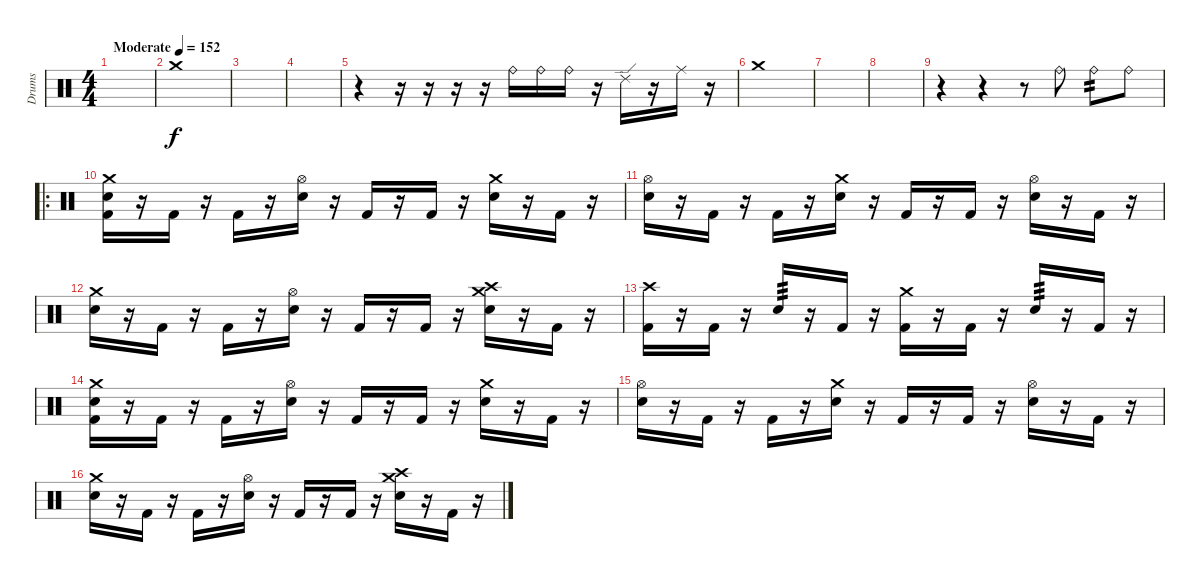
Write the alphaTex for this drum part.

\track ("Drums" "Drums") {instrument percussion}
\staff {score}
\articulation defaults
\ts (4 4)
\tempo (152 "Moderate")
\clef neutral
\ks c
|
"Crash medium (hit)".1 |
|
|
r.4 r.16 r.16 r.16 r.16 "Ride (bell)".16 "Ride (bell)".16 "Ride (bell)".16 r.16 "Ride (edge) 2".16 r.16 "Ride (middle)".16 r.16 |
"Crash medium (hit)".1 |
|
|
r.4 r.4 r.8 "Ride (bell)".8 "Ride (bell)".8{tp 2} "Ride (bell)".8 |
\ro
("Crash medium (hit)" "Snare (hit) 2" "Kick (hit) 2").16 r.16 "Kick (hit) 2".16 r.16 "Kick (hit) 2".16 r.16 ("Hi-Hat (open)" "Snare (hit) 2").16 r.16 "Kick (hit) 2".16 r.16 "Kick (hit) 2".16 r.16 ("Crash medium (hit)" "Snare (hit) 2").16 r.16 "Kick (hit) 2".16 r.16 |
("Hi-Hat (open)" "Snare (hit) 2").16 r.16 "Kick (hit) 2".16 r.16 "Kick (hit) 2".16 r.16 ("Crash medium (hit)" "Snare (hit) 2").16 r.16 "Kick (hit) 2".16 r.16 "Kick (hit) 2".16 r.16 ("Hi-Hat (open)" "Snare (hit) 2").16 r.16 "Kick (hit) 2".16 r.16 |
("Crash medium (hit)" "Snare (hit) 2").16 r.16 "Kick (hit) 2".16 r.16 "Kick (hit) 2".16 r.16 ("Hi-Hat (open)" "Snare (hit) 2").16 r.16 "Kick (hit) 2".16 r.16 "Kick (hit) 2".16 r.16 ("Crash medium (hit)" "Crash high (hit)" "Snare (hit) 2").16 r.16 "Kick (hit) 2".16 r.16 |
("Crash high (hit)" "Kick (hit) 2").16 r.16 "Kick (hit) 2".16 r.16 "Snare (hit) 2".16{tp 3} r.16 "Kick (hit) 2".16 r.16 ("Crash medium (hit)" "Kick (hit) 2").16 r.16 "Kick (hit) 2".16 r.16 "Snare (hit) 2".16{tp 3} r.16 "Kick (hit) 2".16 r.16 |
("Crash medium (hit)" "Snare (hit) 2" "Kick (hit) 2").16 r.16 "Kick (hit) 2".16 r.16 "Kick (hit) 2".16 r.16 ("Hi-Hat (open)" "Snare (hit) 2").16 r.16 "Kick (hit) 2".16 r.16 "Kick (hit) 2".16 r.16 ("Crash medium (hit)" "Snare (hit) 2").16 r.16 "Kick (hit) 2".16 r.16 |
("Hi-Hat (open)" "Snare (hit) 2").16 r.16 "Kick (hit) 2".16 r.16 "Kick (hit) 2".16 r.16 ("Crash medium (hit)" "Snare (hit) 2").16 r.16 "Kick (hit) 2".16 r.16 "Kick (hit) 2".16 r.16 ("Hi-Hat (open)" "Snare (hit) 2").16 r.16 "Kick (hit) 2".16 r.16 |
("Crash medium (hit)" "Snare (hit) 2").16 r.16 "Kick (hit) 2".16 r.16 "Kick (hit) 2".16 r.16 ("Hi-Hat (open)" "Snare (hit) 2").16 r.16 "Kick (hit) 2".16 r.16 "Kick (hit) 2".16 r.16 ("Crash medium (hit)" "Crash high (hit)" "Snare (hit) 2").16 r.16 "Kick (hit) 2".16 r.16
